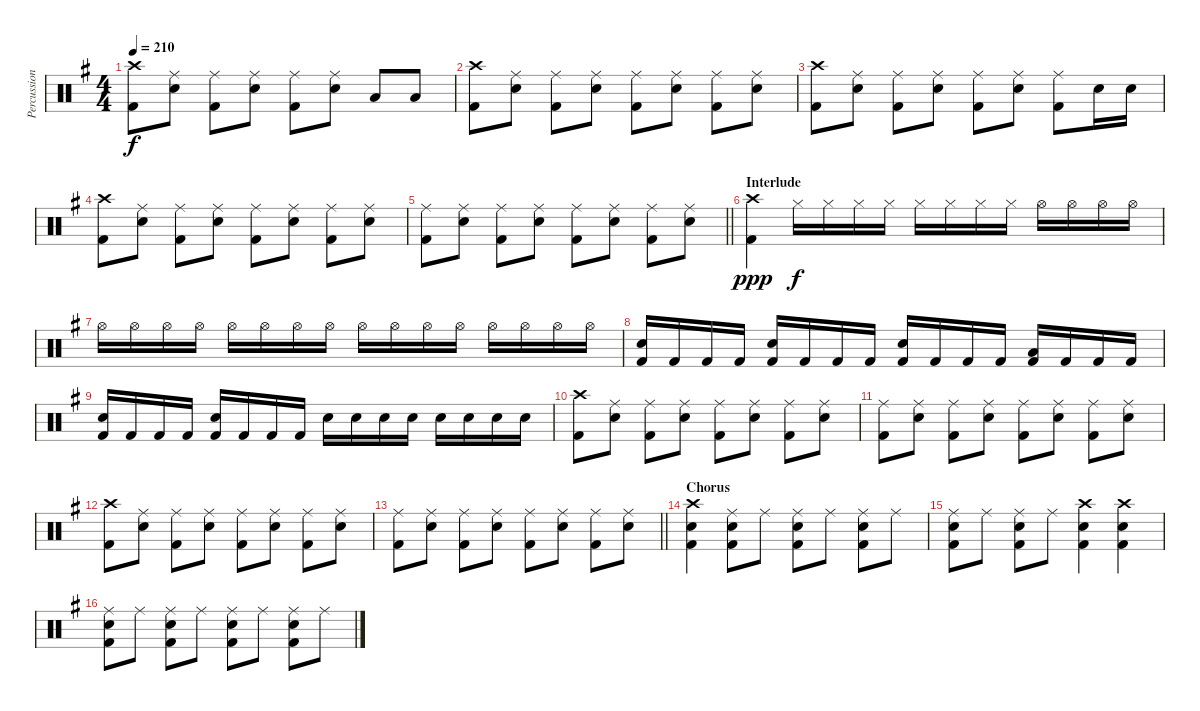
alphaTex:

\track ("Percussion" "Percussion") {instrument percussion}
\staff {score}
\articulation defaults
\ts (4 4)
\tempo 210
\clef neutral
\ks eminor
("Crash high (hit)" "Kick (hit) 2").8{dy f} ("Ride (middle)" "Snare (hit) 2").8 ("Ride (middle)" "Kick (hit) 2").8 ("Ride (middle)" "Snare (hit) 2").8 ("Ride (middle)" "Kick (hit) 2").8 ("Ride (middle)" "Snare (hit) 2").8 "Low Tom (hit)".8 "Low Tom (hit)".8 |
("Crash high (hit)" "Kick (hit) 2").8 ("Ride (middle)" "Snare (hit) 2").8 ("Ride (middle)" "Kick (hit) 2").8 ("Ride (middle)" "Snare (hit) 2").8 ("Ride (middle)" "Kick (hit) 2").8 ("Ride (middle)" "Snare (hit) 2").8 ("Ride (middle)" "Kick (hit) 2").8 ("Ride (middle)" "Snare (hit) 2").8 |
("Crash high (hit)" "Kick (hit) 2").8 ("Ride (middle)" "Snare (hit) 2").8 ("Ride (middle)" "Kick (hit) 2").8 ("Ride (middle)" "Snare (hit) 2").8 ("Ride (middle)" "Kick (hit) 2").8 ("Ride (middle)" "Snare (hit) 2").8 ("Ride (middle)" "Kick (hit) 2").8 "Snare (hit) 2".16 "Snare (hit) 2".16 |
("Crash high (hit)" "Kick (hit) 2").8 ("Ride (middle)" "Snare (hit) 2").8 ("Ride (middle)" "Kick (hit) 2").8 ("Ride (middle)" "Snare (hit) 2").8 ("Ride (middle)" "Kick (hit) 2").8 ("Ride (middle)" "Snare (hit) 2").8 ("Ride (middle)" "Kick (hit) 2").8 ("Ride (middle)" "Snare (hit) 2").8 |
\barLineRight lightlight
("Ride (middle)" "Kick (hit) 2").8 ("Ride (middle)" "Snare (hit) 2").8 ("Ride (middle)" "Kick (hit) 2").8 ("Ride (middle)" "Snare (hit) 2").8 ("Ride (middle)" "Kick (hit) 2").8 ("Ride (middle)" "Snare (hit) 2").8 ("Ride (middle)" "Kick (hit) 2").8 ("Ride (middle)" "Snare (hit) 2").8 |
\section ("" "Interlude")
("Crash high (hit)" "Kick (hit) 2").4{dy ppp} "Hi-Hat (closed)".16{dy f} "Hi-Hat (closed)".16 "Hi-Hat (closed)".16 "Hi-Hat (closed)".16 "Hi-Hat (closed)".16 "Hi-Hat (closed)".16 "Hi-Hat (closed)".16 "Hi-Hat (closed)".16 "Hi-Hat (open)".16 "Hi-Hat (open)".16 "Hi-Hat (open)".16 "Hi-Hat (open)".16 |
"Hi-Hat (open)".16 "Hi-Hat (open)".16 "Hi-Hat (open)".16 "Hi-Hat (open)".16 "Hi-Hat (open)".16 "Hi-Hat (open)".16 "Hi-Hat (open)".16 "Hi-Hat (open)".16 "Hi-Hat (open)".16 "Hi-Hat (open)".16 "Hi-Hat (open)".16 "Hi-Hat (open)".16 "Hi-Hat (open)".16 "Hi-Hat (open)".16 "Hi-Hat (open)".16 "Hi-Hat (open)".16 |
("Snare (hit) 2" "Kick (hit) 2").16 "Kick (hit) 2".16 "Kick (hit) 2".16 "Kick (hit) 2".16 ("Snare (hit) 2" "Kick (hit) 2").16 "Kick (hit) 2".16 "Kick (hit) 2".16 "Kick (hit) 2".16 ("Snare (hit) 2" "Kick (hit) 2").16 "Kick (hit) 2".16 "Kick (hit) 2".16 "Kick (hit) 2".16 ("Low Tom (hit)" "Kick (hit) 2").16 "Kick (hit) 2".16 "Kick (hit) 2".16 "Kick (hit) 2".16 |
("Snare (hit) 2" "Kick (hit) 2").16 "Kick (hit) 2".16 "Kick (hit) 2".16 "Kick (hit) 2".16 ("Snare (hit) 2" "Kick (hit) 2").16 "Kick (hit) 2".16 "Kick (hit) 2".16 "Kick (hit) 2".16 "Snare (hit) 2".16 "Snare (hit) 2".16 "Snare (hit) 2".16 "Snare (hit) 2".16 "Snare (hit) 2".16 "Snare (hit) 2".16 "Snare (hit) 2".16 "Snare (hit) 2".16 |
("Crash high (hit)" "Kick (hit) 2").8 ("Ride (middle)" "Snare (hit) 2").8 ("Ride (middle)" "Kick (hit) 2").8 ("Ride (middle)" "Snare (hit) 2").8 ("Ride (middle)" "Kick (hit) 2").8 ("Ride (middle)" "Snare (hit) 2").8 ("Ride (middle)" "Kick (hit) 2").8 ("Ride (middle)" "Snare (hit) 2").8 |
("Ride (middle)" "Kick (hit) 2").8 ("Ride (middle)" "Snare (hit) 2").8 ("Ride (middle)" "Kick (hit) 2").8 ("Ride (middle)" "Snare (hit) 2").8 ("Ride (middle)" "Kick (hit) 2").8 ("Ride (middle)" "Snare (hit) 2").8 ("Ride (middle)" "Kick (hit) 2").8 ("Ride (middle)" "Snare (hit) 2").8 |
("Crash high (hit)" "Kick (hit) 2").8 ("Ride (middle)" "Snare (hit) 2").8 ("Ride (middle)" "Kick (hit) 2").8 ("Ride (middle)" "Snare (hit) 2").8 ("Ride (middle)" "Kick (hit) 2").8 ("Ride (middle)" "Snare (hit) 2").8 ("Ride (middle)" "Kick (hit) 2").8 ("Ride (middle)" "Snare (hit) 2").8 |
\barLineRight lightlight
("Ride (middle)" "Kick (hit) 2").8 ("Ride (middle)" "Snare (hit) 2").8 ("Ride (middle)" "Kick (hit) 2").8 ("Ride (middle)" "Snare (hit) 2").8 ("Ride (middle)" "Kick (hit) 2").8 ("Ride (middle)" "Snare (hit) 2").8 ("Ride (middle)" "Kick (hit) 2").8 ("Ride (middle)" "Snare (hit) 2").8 |
\section ("" "Chorus")
("Crash high (hit)" "Snare (hit) 2" "Kick (hit) 2").4 ("Ride (middle)" "Snare (hit) 2" "Kick (hit) 2").8 "Ride (middle)".8 ("Ride (middle)" "Snare (hit) 2" "Kick (hit) 2").8 "Ride (middle)".8 ("Ride (middle)" "Snare (hit) 2" "Kick (hit) 2").8 "Ride (middle)".8 |
("Ride (middle)" "Snare (hit) 2" "Kick (hit) 2").8 "Ride (middle)".8 ("Ride (middle)" "Snare (hit) 2" "Kick (hit) 2").8 "Ride (middle)".8 ("Crash high (hit)" "Snare (hit) 2" "Kick (hit) 2").4 ("Crash high (hit)" "Snare (hit) 2" "Kick (hit) 2").4 |
("Ride (middle)" "Snare (hit) 2" "Kick (hit) 2").8 "Ride (middle)".8 ("Ride (middle)" "Snare (hit) 2" "Kick (hit) 2").8 "Ride (middle)".8 ("Ride (middle)" "Snare (hit) 2" "Kick (hit) 2").8 "Ride (middle)".8 ("Ride (middle)" "Snare (hit) 2" "Kick (hit) 2").8 "Ride (middle)".8
